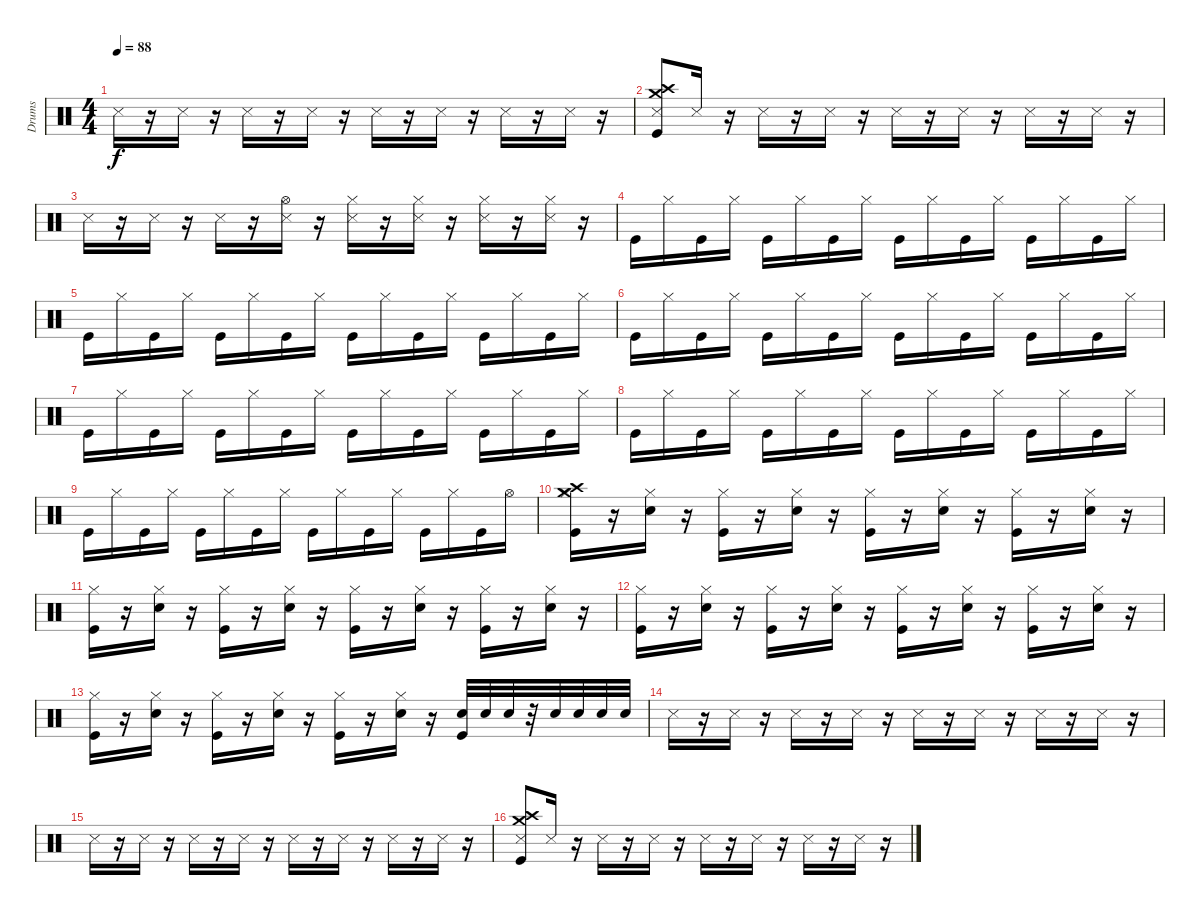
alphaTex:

\track ("Drums" "Drums") {instrument percussion}
\staff {score}
\articulation defaults
\ts (4 4)
\tempo 88
\clef neutral
\ks c "Snare (side stick) 3".16{dy f}
r.16 "Snare (side stick) 3".16 r.16 "Snare (side stick) 3".16 r.16 "Snare (side stick) 3".16 r.16 "Snare (side stick) 3".16 r.16 "Snare (side stick) 3".16 r.16 "Snare (side stick) 3".16 r.16 "Snare (side stick) 3".16 r.16 |
("Snare (side stick) 3" "Crash medium (hit)" "Crash high (hit)" "Kick (hit)").8 "Snare (side stick) 3".16 r.16 "Snare (side stick) 3".16 r.16 "Snare (side stick) 3".16 r.16 "Snare (side stick) 3".16 r.16 "Snare (side stick) 3".16 r.16 "Snare (side stick) 3".16 r.16 "Snare (side stick) 3".16 r.16 |
"Snare (side stick) 3".16 r.16 "Snare (side stick) 3".16 r.16 "Snare (side stick) 3".16 r.16 ("Hi-Hat (open)" "Snare (side stick) 3").16 r.16 ("Hi-Hat (closed)" "Snare (side stick) 3").16 r.16 ("Hi-Hat (closed)" "Snare (side stick) 3").16 r.16 ("Hi-Hat (closed)" "Snare (side stick) 3").16 r.16 ("Hi-Hat (closed)" "Snare (side stick) 3").16 r.16 |
"Kick (hit)".16 "Hi-Hat (closed)".16 "Kick (hit)".16 "Hi-Hat (closed)".16 "Kick (hit)".16 "Hi-Hat (closed)".16 "Kick (hit)".16 "Hi-Hat (closed)".16 "Kick (hit)".16 "Hi-Hat (closed)".16 "Kick (hit)".16 "Hi-Hat (closed)".16 "Kick (hit)".16 "Hi-Hat (closed)".16 "Kick (hit)".16 "Hi-Hat (closed)".16 |
"Kick (hit)".16 "Hi-Hat (closed)".16 "Kick (hit)".16 "Hi-Hat (closed)".16 "Kick (hit)".16 "Hi-Hat (closed)".16 "Kick (hit)".16 "Hi-Hat (closed)".16 "Kick (hit)".16 "Hi-Hat (closed)".16 "Kick (hit)".16 "Hi-Hat (closed)".16 "Kick (hit)".16 "Hi-Hat (closed)".16 "Kick (hit)".16 "Hi-Hat (closed)".16 |
"Kick (hit)".16 "Hi-Hat (closed)".16 "Kick (hit)".16 "Hi-Hat (closed)".16 "Kick (hit)".16 "Hi-Hat (closed)".16 "Kick (hit)".16 "Hi-Hat (closed)".16 "Kick (hit)".16 "Hi-Hat (closed)".16 "Kick (hit)".16 "Hi-Hat (closed)".16 "Kick (hit)".16 "Hi-Hat (closed)".16 "Kick (hit)".16 "Hi-Hat (closed)".16 |
"Kick (hit)".16 "Hi-Hat (closed)".16 "Kick (hit)".16 "Hi-Hat (closed)".16 "Kick (hit)".16 "Hi-Hat (closed)".16 "Kick (hit)".16 "Hi-Hat (closed)".16 "Kick (hit)".16 "Hi-Hat (closed)".16 "Kick (hit)".16 "Hi-Hat (closed)".16 "Kick (hit)".16 "Hi-Hat (closed)".16 "Kick (hit)".16 "Hi-Hat (closed)".16 |
"Kick (hit)".16 "Hi-Hat (closed)".16 "Kick (hit)".16 "Hi-Hat (closed)".16 "Kick (hit)".16 "Hi-Hat (closed)".16 "Kick (hit)".16 "Hi-Hat (closed)".16 "Kick (hit)".16 "Hi-Hat (closed)".16 "Kick (hit)".16 "Hi-Hat (closed)".16 "Kick (hit)".16 "Hi-Hat (closed)".16 "Kick (hit)".16 "Hi-Hat (closed)".16 |
"Kick (hit)".16 "Hi-Hat (closed)".16 "Kick (hit)".16 "Hi-Hat (closed)".16 "Kick (hit)".16 "Hi-Hat (closed)".16 "Kick (hit)".16 "Hi-Hat (closed)".16 "Kick (hit)".16 "Hi-Hat (closed)".16 "Kick (hit)".16 "Hi-Hat (closed)".16 "Kick (hit)".16 "Hi-Hat (closed)".16 "Kick (hit)".16 "Hi-Hat (open)".16 |
("Crash medium (hit)" "Kick (hit)" "Crash high (hit)" "Hi-Hat (closed)").16 r.16 ("Hi-Hat (closed)" "Snare (hit) 2").16 r.16 ("Hi-Hat (closed)" "Kick (hit)").16 r.16 ("Hi-Hat (closed)" "Snare (hit) 2").16 r.16 ("Hi-Hat (closed)" "Kick (hit)").16 r.16 ("Hi-Hat (closed)" "Snare (hit) 2").16 r.16 ("Kick (hit)" "Hi-Hat (closed)").16 r.16 ("Hi-Hat (closed)" "Snare (hit) 2").16 r.16 |
("Hi-Hat (closed)" "Kick (hit)").16 r.16 ("Hi-Hat (closed)" "Snare (hit) 2").16 r.16 ("Kick (hit)" "Hi-Hat (closed)").16 r.16 ("Hi-Hat (closed)" "Snare (hit) 2").16 r.16 ("Hi-Hat (closed)" "Kick (hit)").16 r.16 ("Snare (hit) 2" "Hi-Hat (closed)").16 r.16 ("Kick (hit)" "Hi-Hat (closed)").16 r.16 ("Snare (hit) 2" "Hi-Hat (closed)").16 r.16 |
("Hi-Hat (closed)" "Kick (hit)").16 r.16 ("Snare (hit) 2" "Hi-Hat (closed)").16 r.16 ("Hi-Hat (closed)" "Kick (hit)").16 r.16 ("Snare (hit) 2" "Hi-Hat (closed)").16 r.16 ("Hi-Hat (closed)" "Kick (hit)").16 r.16 ("Hi-Hat (closed)" "Snare (hit) 2").16 r.16 ("Hi-Hat (closed)" "Kick (hit)").16 r.16 ("Hi-Hat (closed)" "Snare (hit) 2").16 r.16 |
("Hi-Hat (closed)" "Kick (hit)").16 r.16 ("Snare (hit) 2" "Hi-Hat (closed)").16 r.16 ("Hi-Hat (closed)" "Kick (hit)").16 r.16 ("Hi-Hat (closed)" "Snare (hit) 2").16 r.16 ("Kick (hit)" "Hi-Hat (closed)").16 r.16 ("Hi-Hat (closed)" "Snare (hit) 2").16 r.16 ("Kick (hit)" "Snare (hit) 2").32 "Snare (hit) 2".32 "Snare (hit) 2".32 r.32 "Snare (hit) 2".32 "Snare (hit) 2".32 "Snare (hit) 2".32 "Snare (hit) 2".32 |
"Snare (side stick) 3".16 r.16 "Snare (side stick) 3".16 r.16 "Snare (side stick) 3".16 r.16 "Snare (side stick) 3".16 r.16 "Snare (side stick) 3".16 r.16 "Snare (side stick) 3".16 r.16 "Snare (side stick) 3".16 r.16 "Snare (side stick) 3".16 r.16 |
"Snare (side stick) 3".16 r.16 "Snare (side stick) 3".16 r.16 "Snare (side stick) 3".16 r.16 "Snare (side stick) 3".16 r.16 "Snare (side stick) 3".16 r.16 "Snare (side stick) 3".16 r.16 "Snare (side stick) 3".16 r.16 "Snare (side stick) 3".16 r.16 |
("Snare (side stick) 3" "Crash medium (hit)" "Crash high (hit)" "Kick (hit)").8 "Snare (side stick) 3".16 r.16 "Snare (side stick) 3".16 r.16 "Snare (side stick) 3".16 r.16 "Snare (side stick) 3".16 r.16 "Snare (side stick) 3".16 r.16 "Snare (side stick) 3".16 r.16 "Snare (side stick) 3".16 r.16
